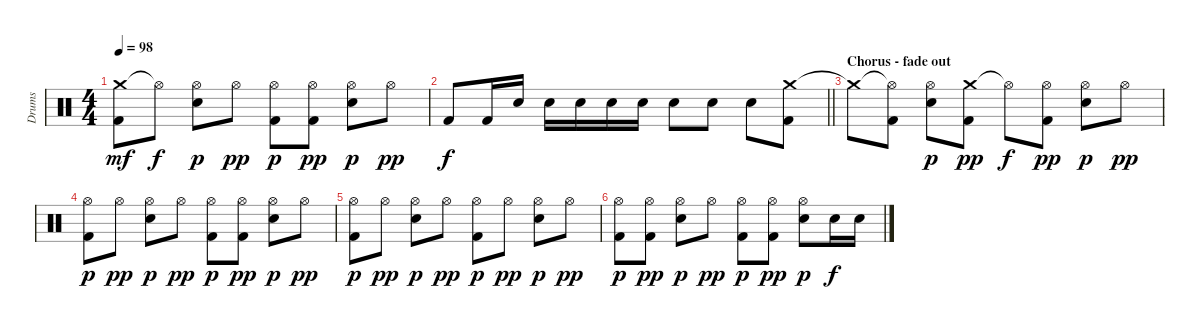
\track ("Drums" "Drums") {instrument percussion}
\staff {score}
\articulation defaults
\ts (4 4)
\tempo 98
\clef neutral
\ks c
("Crash medium (hit)" "Kick (hit) 2").8{dy mf} "Hi-Hat (open)"{t}.8{dy f} ("Hi-Hat (open)" "Electric Snare (hit)").8{dy p} "Hi-Hat (open)".8{dy pp} ("Hi-Hat (open)" "Kick (hit) 2").8{dy p} ("Hi-Hat (open)" "Kick (hit) 2").8{dy pp} ("Hi-Hat (open)" "Electric Snare (hit)").8{dy p} "Hi-Hat (open)".8{dy pp} |
\barLineRight lightlight "Kick (hit) 2".8{dy f} "Kick (hit) 2".16 "Electric Snare (hit)".16 "Electric Snare (hit)".16 "Electric Snare (hit)".16 "Electric Snare (hit)".16 "Electric Snare (hit)".16 "Electric Snare (hit)".8 "Electric Snare (hit)".8 "Electric Snare (hit)".8
("Crash medium (hit)" "Kick (hit) 2").8 |
\section ("" "Chorus - fade out")
"Crash medium (hit)"{t}.8 ("Hi-Hat (open)"{t} "Kick (hit) 2").8 ("Hi-Hat (open)" "Electric Snare (hit)").8{dy p} ("Crash medium (hit)" "Kick (hit) 2").8{dy pp} "Hi-Hat (open)"{t}.8{dy f} ("Hi-Hat (open)" "Kick (hit) 2").8{dy pp} ("Hi-Hat (open)" "Electric Snare (hit)").8{dy p} "Hi-Hat (open)".8{dy pp} |
("Hi-Hat (open)" "Kick (hit) 2").8{dy p} "Hi-Hat (open)".8{dy pp} ("Hi-Hat (open)" "Electric Snare (hit)").8{dy p} "Hi-Hat (open)".8{dy pp} ("Hi-Hat (open)" "Kick (hit) 2").8{dy p} ("Hi-Hat (open)" "Kick (hit) 2").8{dy pp} ("Hi-Hat (open)" "Electric Snare (hit)").8{dy p} "Hi-Hat (open)".8{dy pp} |
("Hi-Hat (open)" "Kick (hit) 2").8{dy p} "Hi-Hat (open)".8{dy pp} ("Hi-Hat (open)" "Electric Snare (hit)").8{dy p} "Hi-Hat (open)".8{dy pp} ("Hi-Hat (open)" "Kick (hit) 2").8{dy p} "Hi-Hat (open)".8{dy pp} ("Hi-Hat (open)" "Electric Snare (hit)").8{dy p} "Hi-Hat (open)".8{dy pp} |
("Hi-Hat (open)" "Kick (hit) 2").8{dy p} ("Hi-Hat (open)" "Kick (hit) 2").8{dy pp} ("Hi-Hat (open)" "Electric Snare (hit)").8{dy p} "Hi-Hat (open)".8{dy pp} ("Hi-Hat (open)" "Kick (hit) 2").8{dy p} ("Hi-Hat (open)" "Kick (hit) 2").8{dy pp} ("Hi-Hat (open)" "Electric Snare (hit)").8{dy p} "Electric Snare (hit)".16{dy f} "Electric Snare (hit)".16
